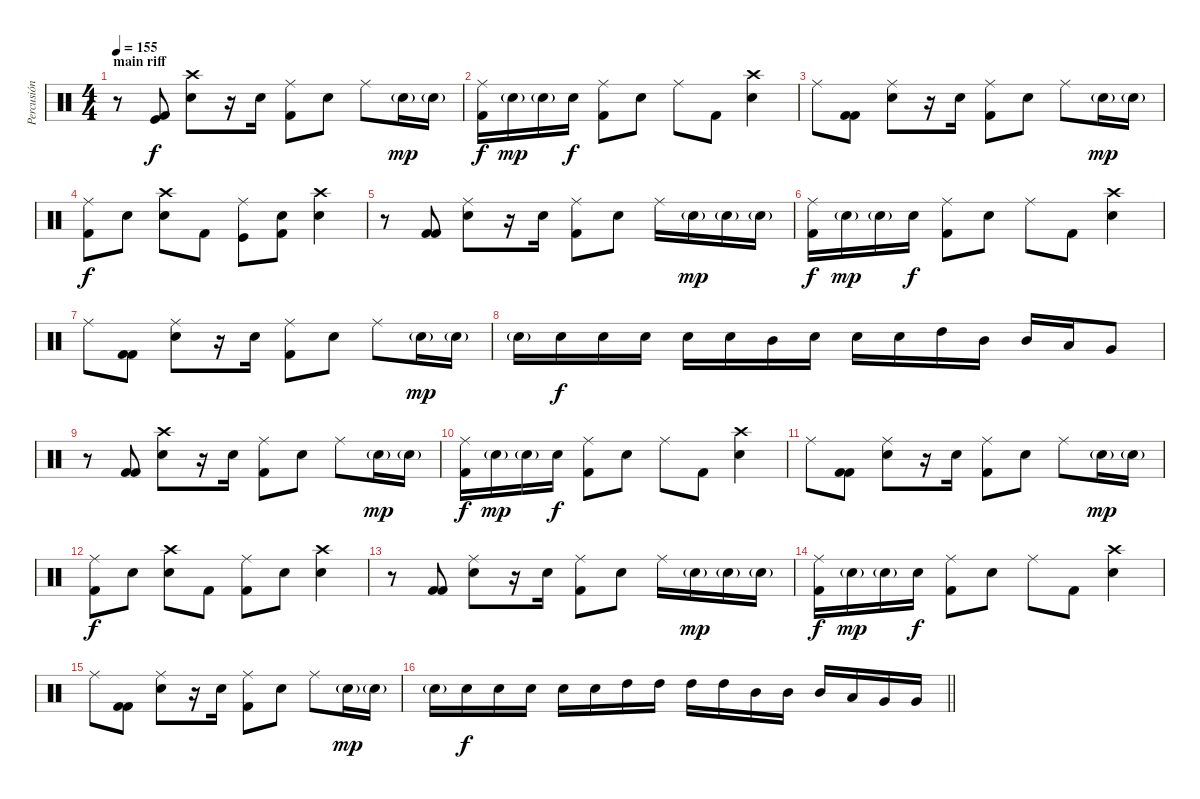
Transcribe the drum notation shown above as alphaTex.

\track ("Percusión" "Percusión") {instrument percussion}
\staff {score}
\articulation defaults
\ts (4 4)
\section ("" "main riff")
\tempo 155
\clef neutral
\ks c
r.8{dy f} ("Kick (hit) 2" "Kick (hit)").8 ("Crash high (hit)" "Snare (hit) 2").8 r.16 "Snare (hit) 2".16 ("Ride (middle)" "Kick (hit) 2").8 "Snare (hit) 2".8 "Ride (middle)".8 "Snare (hit) 2"{g}.16{dy mp} "Snare (hit) 2"{g}.16 |
("Ride (middle)" "Kick (hit) 2").16{dy f} "Snare (hit) 2"{g}.16{dy mp} "Snare (hit) 2"{g}.16 "Snare (hit) 2".16{dy f} ("Ride (middle)" "Kick (hit) 2").8 "Snare (hit) 2".8 "Ride (middle)".8 "Kick (hit) 2".8 ("Crash high (hit)" "Snare (hit) 2").4 |
"Ride (middle)".8 ("Kick (hit) 2" "Kick (hit) 2").8 ("Ride (middle)" "Snare (hit) 2").8 r.16 "Snare (hit) 2".16 ("Ride (middle)" "Kick (hit) 2").8 "Snare (hit) 2".8 "Ride (middle)".8 "Snare (hit) 2"{g}.16{dy mp} "Snare (hit) 2"{g}.16 |
("Ride (middle)" "Kick (hit) 2").8{dy f} "Snare (hit) 2".8 ("Crash high (hit)" "Snare (hit) 2").8 "Kick (hit) 2".8 ("Ride (middle)" "Kick (hit)").8 ("Snare (hit) 2" "Kick (hit) 2").8 ("Crash high (hit)" "Snare (hit) 2").4 |
r.8 ("Kick (hit) 2" "Kick (hit) 2").8 ("Ride (middle)" "Snare (hit) 2").8 r.16 "Snare (hit) 2".16 ("Ride (middle)" "Kick (hit) 2").8 "Snare (hit) 2".8 "Ride (middle)".16 "Snare (hit) 2"{g}.16{dy mp} "Snare (hit) 2"{g}.16 "Snare (hit) 2"{g}.16 |
("Ride (middle)" "Kick (hit) 2").16{dy f} "Snare (hit) 2"{g}.16{dy mp} "Snare (hit) 2"{g}.16 "Snare (hit) 2".16{dy f} ("Ride (middle)" "Kick (hit) 2").8 "Snare (hit) 2".8 "Ride (middle)".8 "Kick (hit) 2".8 ("Crash high (hit)" "Snare (hit) 2").4 |
"Ride (middle)".8 ("Kick (hit) 2" "Kick (hit) 2").8 ("Ride (middle)" "Snare (hit) 2").8 r.16 "Snare (hit) 2".16 ("Ride (middle)" "Kick (hit) 2").8 "Snare (hit) 2".8 "Ride (middle)".8 "Snare (hit) 2"{g}.16{dy mp} "Snare (hit) 2"{g}.16 |
"Snare (hit) 2"{g}.16 "Snare (hit) 2".16{dy f} "Snare (hit) 2".16 "Snare (hit) 2".16 "Snare (hit) 2".16 "Snare (hit) 2".16 "Mid Tom (hit)".16 "Snare (hit) 2".16 "Snare (hit) 2".16 "Snare (hit) 2".16 "High Tom (hit)".16 "Mid Tom (hit)".16 "Mid Tom (hit)".16 "Low Tom (hit)".16 "Very Low Tom (hit)".8 |
r.8 ("Kick (hit) 2" "Kick (hit) 2").8 ("Crash high (hit)" "Snare (hit) 2").8 r.16 "Snare (hit) 2".16 ("Ride (middle)" "Kick (hit) 2").8 "Snare (hit) 2".8 "Ride (middle)".8 "Snare (hit) 2"{g}.16{dy mp} "Snare (hit) 2"{g}.16 |
("Ride (middle)" "Kick (hit) 2").16{dy f} "Snare (hit) 2"{g}.16{dy mp} "Snare (hit) 2"{g}.16 "Snare (hit) 2".16{dy f} ("Ride (middle)" "Kick (hit) 2").8 "Snare (hit) 2".8 "Ride (middle)".8 "Kick (hit) 2".8 ("Crash high (hit)" "Snare (hit) 2").4 |
"Ride (middle)".8 ("Kick (hit) 2" "Kick (hit) 2").8 ("Ride (middle)" "Snare (hit) 2").8 r.16 "Snare (hit) 2".16 ("Ride (middle)" "Kick (hit) 2").8 "Snare (hit) 2".8 "Ride (middle)".8 "Snare (hit) 2"{g}.16{dy mp} "Snare (hit) 2"{g}.16 |
("Ride (middle)" "Kick (hit) 2").8{dy f} "Snare (hit) 2".8 ("Crash high (hit)" "Snare (hit) 2").8 "Kick (hit) 2".8 ("Ride (middle)" "Kick (hit) 2").8 "Snare (hit) 2".8 ("Crash high (hit)" "Snare (hit) 2").4 |
r.8 ("Kick (hit) 2" "Kick (hit) 2").8 ("Ride (middle)" "Snare (hit) 2").8 r.16 "Snare (hit) 2".16 ("Ride (middle)" "Kick (hit) 2").8 "Snare (hit) 2".8 "Ride (middle)".16 "Snare (hit) 2"{g}.16{dy mp} "Snare (hit) 2"{g}.16 "Snare (hit) 2"{g}.16 |
("Ride (middle)" "Kick (hit) 2").16{dy f} "Snare (hit) 2"{g}.16{dy mp} "Snare (hit) 2"{g}.16 "Snare (hit) 2".16{dy f} ("Ride (middle)" "Kick (hit) 2").8 "Snare (hit) 2".8 "Ride (middle)".8 "Kick (hit) 2".8 ("Crash high (hit)" "Snare (hit) 2").4 |
"Ride (middle)".8 ("Kick (hit) 2" "Kick (hit) 2").8 ("Ride (middle)" "Snare (hit) 2").8 r.16 "Snare (hit) 2".16 ("Ride (middle)" "Kick (hit) 2").8 "Snare (hit) 2".8 "Ride (middle)".8 "Snare (hit) 2"{g}.16{dy mp} "Snare (hit) 2"{g}.16 |
\barLineRight lightlight "Snare (hit) 2"{g}.16 "Snare (hit) 2".16{dy f} "Snare (hit) 2".16 "Snare (hit) 2".16 "Snare (hit) 2".16 "Snare (hit) 2".16 "High Tom (hit)".16 "High Tom (hit)".16 "High Tom (hit)".16 "High Tom (hit)".16 "Mid Tom (hit)".16 "Mid Tom (hit)".16 "Mid Tom (hit)".16 "Low Tom (hit)".16 "Very Low Tom (hit)".16 "Very Low Tom (hit)".16
